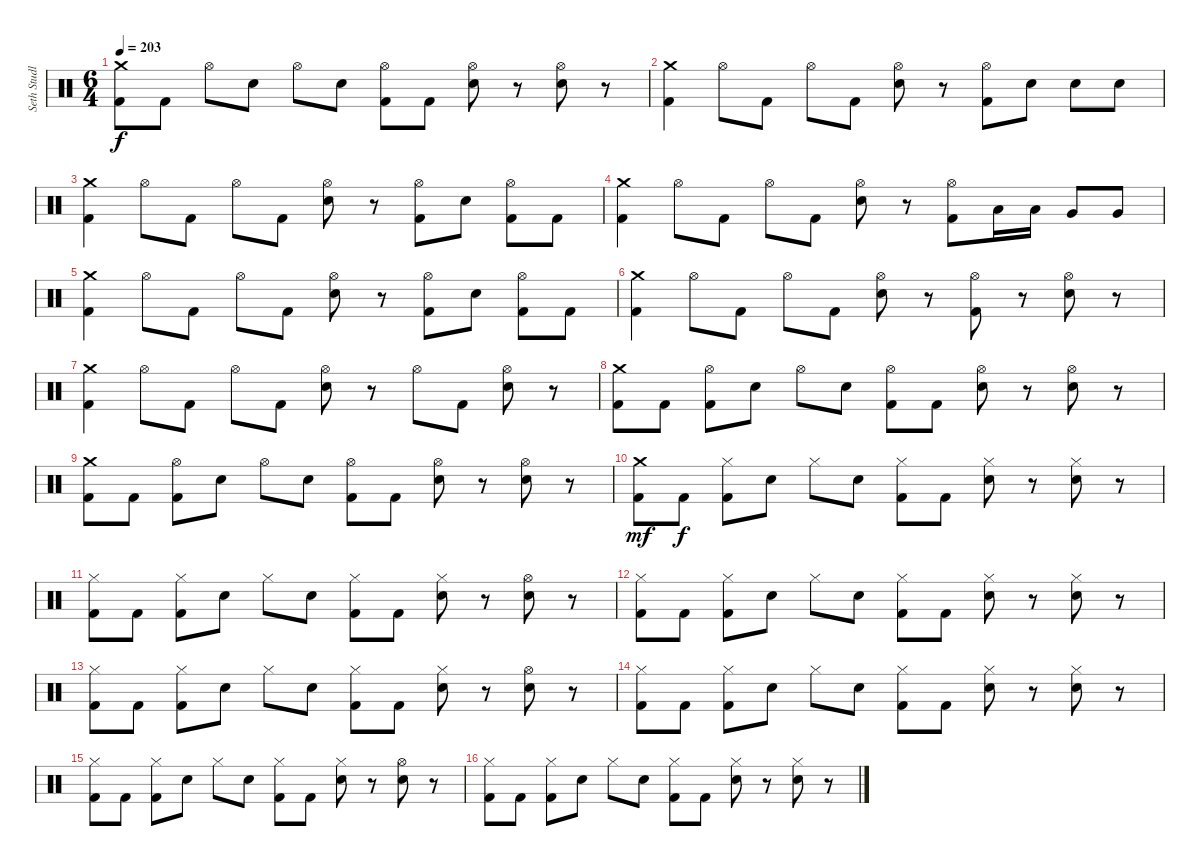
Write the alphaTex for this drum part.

\track ("Seth Studley (Drums)" "Seth Studl") {instrument percussion}
\staff {score}
\articulation defaults
\ts (6 4)
\tempo 203
\clef neutral
\ks c
("Crash medium (hit)" "Kick (hit) 2").8{dy f} "Kick (hit) 2".8 "Hi-Hat (open)".8 "Electric Snare (hit)".8 "Hi-Hat (open)".8 "Electric Snare (hit)".8 ("Hi-Hat (open)" "Kick (hit) 2").8 "Kick (hit) 2".8 ("Hi-Hat (open)" "Electric Snare (hit)").8 r.8 ("Hi-Hat (open)" "Electric Snare (hit)").8 r.8 |
("Crash medium (hit)" "Kick (hit) 2").4 "Hi-Hat (open)".8 "Kick (hit) 2".8 "Hi-Hat (open)".8 "Kick (hit) 2".8 ("Hi-Hat (open)" "Electric Snare (hit)").8 r.8 ("Hi-Hat (open)" "Kick (hit) 2").8 "Electric Snare (hit)".8 "Electric Snare (hit)".8 "Electric Snare (hit)".8 |
("Crash medium (hit)" "Kick (hit) 2").4 "Hi-Hat (open)".8 "Kick (hit) 2".8 "Hi-Hat (open)".8 "Kick (hit) 2".8 ("Hi-Hat (open)" "Electric Snare (hit)").8 r.8 ("Hi-Hat (open)" "Kick (hit) 2").8 "Electric Snare (hit)".8 ("Hi-Hat (open)" "Kick (hit) 2").8 "Kick (hit) 2".8 |
("Crash medium (hit)" "Kick (hit) 2").4 "Hi-Hat (open)".8 "Kick (hit) 2".8 "Hi-Hat (open)".8 "Kick (hit) 2".8 ("Hi-Hat (open)" "Electric Snare (hit)").8 r.8 ("Hi-Hat (open)" "Kick (hit) 2").8 "Low Tom (hit)".16 "Low Tom (hit)".16 "Very Low Tom (hit)".8 "Very Low Tom (hit)".8 |
("Crash medium (hit)" "Kick (hit) 2").4 "Hi-Hat (open)".8 "Kick (hit) 2".8 "Hi-Hat (open)".8 "Kick (hit) 2".8 ("Hi-Hat (open)" "Electric Snare (hit)").8 r.8 ("Hi-Hat (open)" "Kick (hit) 2").8 "Electric Snare (hit)".8 ("Hi-Hat (open)" "Kick (hit) 2").8 "Kick (hit) 2".8 |
("Crash medium (hit)" "Kick (hit) 2").4 "Hi-Hat (open)".8 "Kick (hit) 2".8 "Hi-Hat (open)".8 "Kick (hit) 2".8 ("Hi-Hat (open)" "Electric Snare (hit)").8 r.8 ("Hi-Hat (open)" "Kick (hit) 2").8 r.8 ("Hi-Hat (open)" "Electric Snare (hit)").8 r.8 |
("Crash medium (hit)" "Kick (hit) 2").4 "Hi-Hat (open)".8 "Kick (hit) 2".8 "Hi-Hat (open)".8 "Kick (hit) 2".8 ("Hi-Hat (open)" "Electric Snare (hit)").8 r.8 "Hi-Hat (open)".8 "Kick (hit) 2".8 ("Hi-Hat (open)" "Electric Snare (hit)").8 r.8 |
("Crash medium (hit)" "Kick (hit) 2").8 "Kick (hit) 2".8 ("Hi-Hat (open)" "Kick (hit) 2").8 "Electric Snare (hit)".8 "Hi-Hat (open)".8 "Electric Snare (hit)".8 ("Hi-Hat (open)" "Kick (hit) 2").8 "Kick (hit) 2".8 ("Hi-Hat (open)" "Electric Snare (hit)").8 r.8 ("Hi-Hat (open)" "Electric Snare (hit)").8 r.8 |
("Crash medium (hit)" "Kick (hit) 2").8 "Kick (hit) 2".8 ("Hi-Hat (open)" "Kick (hit) 2").8 "Electric Snare (hit)".8 "Hi-Hat (open)".8 "Electric Snare (hit)".8 ("Hi-Hat (open)" "Kick (hit) 2").8 "Kick (hit) 2".8 ("Hi-Hat (open)" "Electric Snare (hit)").8 r.8 ("Hi-Hat (open)" "Electric Snare (hit)").8 r.8 |
("Crash medium (hit)" "Kick (hit) 2").8{dy mf} "Kick (hit) 2".8{dy f} ("Hi-Hat (closed)" "Kick (hit) 2").8 "Electric Snare (hit)".8 "Hi-Hat (closed)".8 "Electric Snare (hit)".8 ("Hi-Hat (closed)" "Kick (hit) 2").8 "Kick (hit) 2".8 ("Hi-Hat (closed)" "Electric Snare (hit)").8 r.8 ("Hi-Hat (closed)" "Electric Snare (hit)").8 r.8 |
("Hi-Hat (closed)" "Kick (hit) 2").8 "Kick (hit) 2".8 ("Hi-Hat (closed)" "Kick (hit) 2").8 "Electric Snare (hit)".8 "Hi-Hat (closed)".8 "Electric Snare (hit)".8 ("Hi-Hat (closed)" "Kick (hit) 2").8 "Kick (hit) 2".8 ("Hi-Hat (closed)" "Electric Snare (hit)").8 r.8 ("Hi-Hat (open)" "Electric Snare (hit)").8 r.8 |
("Hi-Hat (closed)" "Kick (hit) 2").8 "Kick (hit) 2".8 ("Hi-Hat (closed)" "Kick (hit) 2").8 "Electric Snare (hit)".8 "Hi-Hat (closed)".8 "Electric Snare (hit)".8 ("Hi-Hat (closed)" "Kick (hit) 2").8 "Kick (hit) 2".8 ("Hi-Hat (closed)" "Electric Snare (hit)").8 r.8 ("Hi-Hat (closed)" "Electric Snare (hit)").8 r.8 |
("Hi-Hat (closed)" "Kick (hit) 2").8 "Kick (hit) 2".8 ("Hi-Hat (closed)" "Kick (hit) 2").8 "Electric Snare (hit)".8 "Hi-Hat (closed)".8 "Electric Snare (hit)".8 ("Hi-Hat (closed)" "Kick (hit) 2").8 "Kick (hit) 2".8 ("Hi-Hat (closed)" "Electric Snare (hit)").8 r.8 ("Hi-Hat (open)" "Electric Snare (hit)").8 r.8 |
("Hi-Hat (closed)" "Kick (hit) 2").8 "Kick (hit) 2".8 ("Hi-Hat (closed)" "Kick (hit) 2").8 "Electric Snare (hit)".8 "Hi-Hat (closed)".8 "Electric Snare (hit)".8 ("Hi-Hat (closed)" "Kick (hit) 2").8 "Kick (hit) 2".8 ("Hi-Hat (closed)" "Electric Snare (hit)").8 r.8 ("Hi-Hat (closed)" "Electric Snare (hit)").8 r.8 |
("Hi-Hat (closed)" "Kick (hit) 2").8 "Kick (hit) 2".8 ("Hi-Hat (closed)" "Kick (hit) 2").8 "Electric Snare (hit)".8 "Hi-Hat (closed)".8 "Electric Snare (hit)".8 ("Hi-Hat (closed)" "Kick (hit) 2").8 "Kick (hit) 2".8 ("Hi-Hat (closed)" "Electric Snare (hit)").8 r.8 ("Hi-Hat (open)" "Electric Snare (hit)").8 r.8 |
("Hi-Hat (closed)" "Kick (hit) 2").8 "Kick (hit) 2".8 ("Hi-Hat (closed)" "Kick (hit) 2").8 "Electric Snare (hit)".8 "Hi-Hat (closed)".8 "Electric Snare (hit)".8 ("Hi-Hat (closed)" "Kick (hit) 2").8 "Kick (hit) 2".8 ("Hi-Hat (closed)" "Electric Snare (hit)").8 r.8 ("Hi-Hat (closed)" "Electric Snare (hit)").8 r.8
